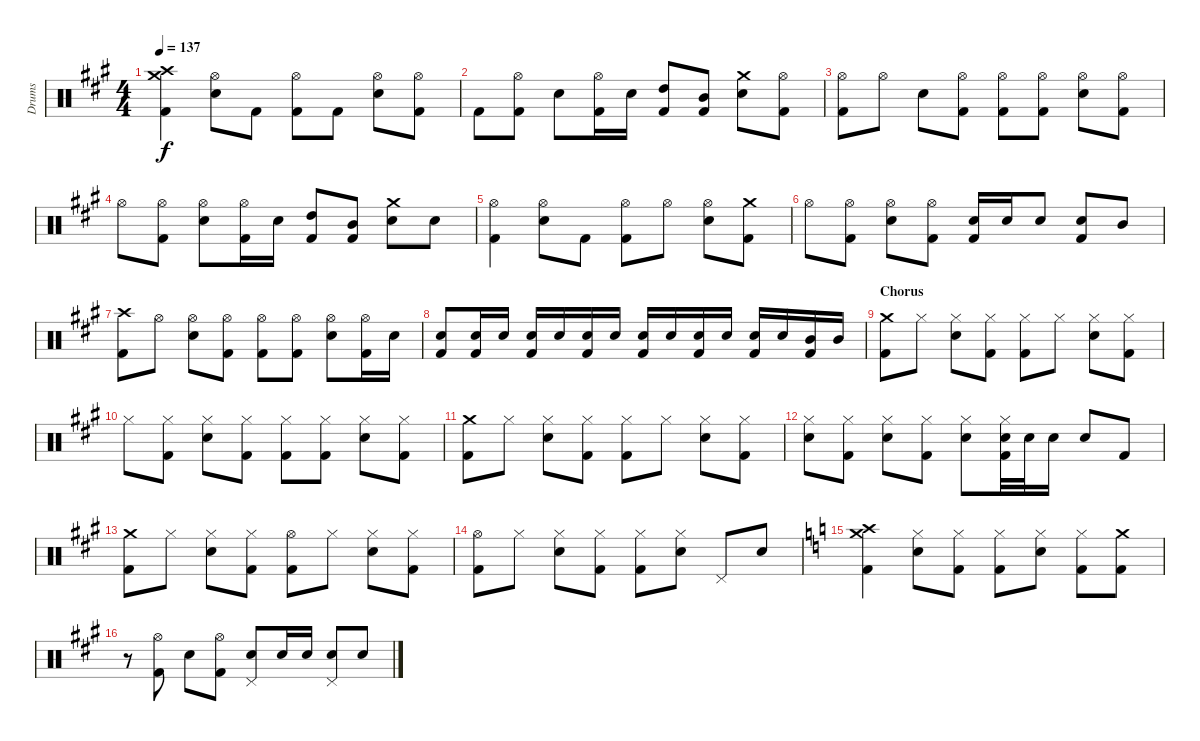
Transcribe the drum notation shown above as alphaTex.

\track ("Drums" "Drums") {instrument percussion}
\staff {score}
\articulation defaults
\ts (4 4)
\tempo 137
\clef neutral
\ks a
("Crash high (hit)" "Crash medium (hit)" "Kick (hit) 2").4{dy f} ("Hi-Hat (open)" "Snare (hit) 2").8 "Kick (hit) 2".8 ("Hi-Hat (open)" "Kick (hit) 2").8 "Kick (hit) 2".8 ("Hi-Hat (open)" "Snare (hit) 2").8 ("Hi-Hat (open)" "Kick (hit) 2").8 |
"Kick (hit) 2".8 ("Hi-Hat (open)" "Kick (hit) 2").8 "Snare (hit) 2".8 ("Hi-Hat (open)" "Kick (hit) 2").16 "Snare (hit) 2".16 ("High Tom (hit)" "Kick (hit) 2").8 ("Mid Tom (hit)" "Kick (hit) 2").8 ("Crash medium (hit)" "Snare (hit) 2").8 ("Hi-Hat (open)" "Kick (hit) 2").8 |
("Hi-Hat (open)" "Kick (hit) 2").8 "Hi-Hat (open)".8 "Snare (hit) 2".8 ("Hi-Hat (open)" "Kick (hit) 2").8 ("Hi-Hat (open)" "Kick (hit) 2").8 ("Hi-Hat (open)" "Kick (hit) 2").8 ("Hi-Hat (open)" "Snare (hit) 2").8 ("Hi-Hat (open)" "Kick (hit) 2").8 |
"Hi-Hat (open)".8 ("Hi-Hat (open)" "Kick (hit) 2").8 ("Hi-Hat (open)" "Snare (hit) 2").8 ("Hi-Hat (open)" "Kick (hit) 2").16 "Snare (hit) 2".16 ("High Tom (hit)" "Kick (hit) 2").8 ("Mid Tom (hit)" "Kick (hit) 2").8 ("Crash medium (hit)" "Snare (hit) 2").8 "Snare (hit) 2".8 |
("Hi-Hat (open)" "Kick (hit) 2").4 ("Hi-Hat (open)" "Snare (hit) 2").8 "Kick (hit) 2".8 ("Hi-Hat (open)" "Kick (hit) 2").8 "Hi-Hat (open)".8 ("Hi-Hat (open)" "Snare (hit) 2").8 ("Crash medium (hit)" "Kick (hit) 2").8 |
"Hi-Hat (open)".8 ("Hi-Hat (open)" "Kick (hit) 2").8 ("Hi-Hat (open)" "Snare (hit) 2").8 ("Hi-Hat (open)" "Kick (hit) 2").8 ("Snare (hit) 2" "Kick (hit) 2").16 "Snare (hit) 2".16 "Snare (hit) 2".8 ("Snare (hit) 2" "Kick (hit) 2").8 "Mid Tom (hit)".8 |
("Crash high (hit)" "Kick (hit) 2").8 "Hi-Hat (open)".8 ("Hi-Hat (open)" "Snare (hit) 2").8 ("Hi-Hat (open)" "Kick (hit) 2").8 ("Hi-Hat (open)" "Kick (hit) 2").8 ("Hi-Hat (open)" "Kick (hit) 2").8 ("Hi-Hat (open)" "Snare (hit) 2").8 ("Hi-Hat (open)" "Kick (hit) 2").16 "Snare (hit) 2".16 |
("Snare (hit) 2" "Kick (hit) 2").8 ("Snare (hit) 2" "Kick (hit) 2").16 "Snare (hit) 2".16 ("Snare (hit) 2" "Kick (hit) 2").16 "Snare (hit) 2".16 ("Snare (hit) 2" "Kick (hit) 2").16 "Snare (hit) 2".16 ("Snare (hit) 2" "Kick (hit) 2").16 "Snare (hit) 2".16 ("Snare (hit) 2" "Kick (hit) 2").16 "Snare (hit) 2".16 ("Snare (hit) 2" "Kick (hit) 2").16 "Snare (hit) 2".16 ("Mid Tom (hit)" "Kick (hit) 2").16 "Mid Tom (hit)".16 |
\section ("" "Chorus")
("Crash medium (hit)" "Kick (hit) 2").8 "Hi-Hat (closed)".8 ("Hi-Hat (closed)" "Snare (hit) 2").8 ("Hi-Hat (closed)" "Kick (hit) 2").8 ("Hi-Hat (closed)" "Kick (hit) 2").8 "Hi-Hat (closed)".8 ("Hi-Hat (closed)" "Snare (hit) 2").8 ("Hi-Hat (closed)" "Kick (hit) 2").8 |
"Hi-Hat (closed)".8 ("Hi-Hat (closed)" "Kick (hit) 2").8 ("Hi-Hat (closed)" "Snare (hit) 2").8 ("Hi-Hat (closed)" "Kick (hit) 2").8 ("Hi-Hat (closed)" "Kick (hit) 2").8 ("Hi-Hat (closed)" "Kick (hit) 2").8 ("Hi-Hat (closed)" "Snare (hit) 2").8 ("Hi-Hat (closed)" "Kick (hit) 2").8 |
("Crash medium (hit)" "Kick (hit) 2").8 "Hi-Hat (closed)".8 ("Hi-Hat (closed)" "Snare (hit) 2").8 ("Hi-Hat (closed)" "Kick (hit) 2").8 ("Hi-Hat (closed)" "Kick (hit) 2").8 "Hi-Hat (closed)".8 ("Hi-Hat (closed)" "Snare (hit) 2").8 ("Hi-Hat (closed)" "Kick (hit) 2").8 |
("Hi-Hat (closed)" "Snare (hit) 2").8 ("Hi-Hat (closed)" "Kick (hit) 2").8 ("Hi-Hat (closed)" "Snare (hit) 2").8 ("Hi-Hat (closed)" "Kick (hit) 2").8 ("Hi-Hat (closed)" "Snare (hit) 2").8 ("Hi-Hat (closed)" "Snare (hit) 2" "Kick (hit) 2").32 "Snare (hit) 2".32 "Snare (hit) 2".16 "Snare (hit) 2".8 "Kick (hit) 2".8 |
("Crash medium (hit)" "Kick (hit) 2").8 "Hi-Hat (closed)".8 ("Hi-Hat (closed)" "Snare (hit) 2").8 ("Hi-Hat (closed)" "Kick (hit) 2").8 ("Hi-Hat (open)" "Kick (hit) 2").8 "Hi-Hat (closed)".8 ("Hi-Hat (closed)" "Snare (hit) 2").8 ("Hi-Hat (closed)" "Kick (hit) 2").8 |
("Hi-Hat (open)" "Kick (hit) 2").8 "Hi-Hat (closed)".8 ("Hi-Hat (closed)" "Snare (hit) 2").8 ("Hi-Hat (closed)" "Kick (hit) 2").8 ("Hi-Hat (closed)" "Kick (hit) 2").8 ("Hi-Hat (closed)" "Snare (hit) 2").8 "Pedal Hi-Hat (hit)".8 "Snare (hit) 2".8 |
\ks c
("Crash high (hit)" "Crash medium (hit)" "Kick (hit) 2").4 ("Hi-Hat (closed)" "Snare (hit) 2").8 ("Hi-Hat (closed)" "Kick (hit) 2").8 ("Hi-Hat (closed)" "Kick (hit) 2").8 ("Hi-Hat (closed)" "Snare (hit) 2").8 ("Hi-Hat (closed)" "Kick (hit) 2").8 ("Crash medium (hit)" "Kick (hit) 2").8 |
\ks a
r.8 ("Hi-Hat (open)" "Kick (hit) 2").8 "Snare (hit) 2".8 ("Hi-Hat (open)" "Kick (hit) 2").8 ("Snare (hit) 2" "Pedal Hi-Hat (hit)").8 "Snare (hit) 2".16 "Snare (hit) 2".16 ("Snare (hit) 2" "Pedal Hi-Hat (hit)").8 "Snare (hit) 2".8
